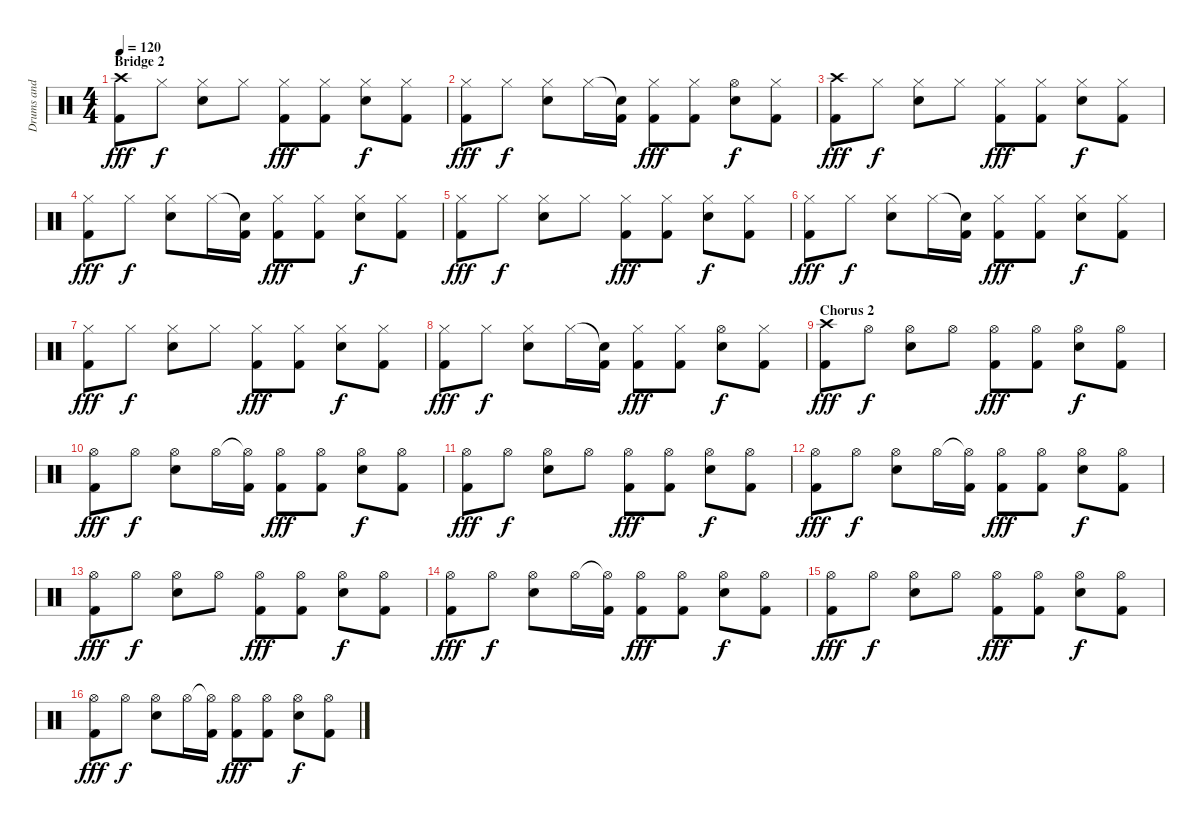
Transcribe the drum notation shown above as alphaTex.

\track ("Drums and Percussion" "Drums and ") {instrument percussion}
\staff {score}
\articulation defaults
\ts (4 4)
\section ("" "Bridge 2")
\tempo 120
\clef neutral
\ks c
("Crash high (hit)" "Kick (hit) 2").8{dy fff} "Hi-Hat (closed)".8{dy f} ("Hi-Hat (closed)" "Snare (hit) 2").8 "Hi-Hat (closed)".8 ("Hi-Hat (closed)" "Kick (hit) 2").8{dy fff} ("Hi-Hat (closed)" "Kick (hit) 2").8 ("Hi-Hat (closed)" "Snare (hit) 2").8{dy f} ("Hi-Hat (closed)" "Kick (hit) 2").8 |
("Hi-Hat (closed)" "Kick (hit) 2").8{dy fff} "Hi-Hat (closed)".8{dy f} ("Hi-Hat (closed)" "Snare (hit) 2").8 "Hi-Hat (closed)".16 ("Snare (hit)"{t} "Kick (hit) 2").16 ("Hi-Hat (closed)" "Kick (hit) 2").8{dy fff} ("Hi-Hat (closed)" "Kick (hit) 2").8 ("Hi-Hat (open)" "Snare (hit) 2").8{dy f} ("Hi-Hat (closed)" "Kick (hit) 2").8 |
("Crash high (hit)" "Kick (hit) 2").8{dy fff} "Hi-Hat (closed)".8{dy f} ("Hi-Hat (closed)" "Snare (hit) 2").8 "Hi-Hat (closed)".8 ("Hi-Hat (closed)" "Kick (hit) 2").8{dy fff} ("Hi-Hat (closed)" "Kick (hit) 2").8 ("Hi-Hat (closed)" "Snare (hit) 2").8{dy f} ("Hi-Hat (closed)" "Kick (hit) 2").8 |
("Hi-Hat (closed)" "Kick (hit) 2").8{dy fff} "Hi-Hat (closed)".8{dy f} ("Hi-Hat (closed)" "Snare (hit) 2").8 "Hi-Hat (closed)".16 ("Snare (hit)"{t} "Kick (hit) 2").16 ("Hi-Hat (closed)" "Kick (hit) 2").8{dy fff} ("Hi-Hat (closed)" "Kick (hit) 2").8 ("Hi-Hat (closed)" "Snare (hit) 2").8{dy f} ("Hi-Hat (closed)" "Kick (hit) 2").8 |
("Hi-Hat (closed)" "Kick (hit) 2").8{dy fff} "Hi-Hat (closed)".8{dy f} ("Hi-Hat (closed)" "Snare (hit) 2").8 "Hi-Hat (closed)".8 ("Hi-Hat (closed)" "Kick (hit) 2").8{dy fff} ("Hi-Hat (closed)" "Kick (hit) 2").8 ("Hi-Hat (closed)" "Snare (hit) 2").8{dy f} ("Hi-Hat (closed)" "Kick (hit) 2").8 |
("Hi-Hat (closed)" "Kick (hit) 2").8{dy fff} "Hi-Hat (closed)".8{dy f} ("Hi-Hat (closed)" "Snare (hit) 2").8 "Hi-Hat (closed)".16 ("Snare (hit)"{t} "Kick (hit) 2").16 ("Hi-Hat (closed)" "Kick (hit) 2").8{dy fff} ("Hi-Hat (closed)" "Kick (hit) 2").8 ("Hi-Hat (closed)" "Snare (hit) 2").8{dy f} ("Hi-Hat (closed)" "Kick (hit) 2").8 |
("Hi-Hat (closed)" "Kick (hit) 2").8{dy fff} "Hi-Hat (closed)".8{dy f} ("Hi-Hat (closed)" "Snare (hit) 2").8 "Hi-Hat (closed)".8 ("Hi-Hat (closed)" "Kick (hit) 2").8{dy fff} ("Hi-Hat (closed)" "Kick (hit) 2").8 ("Hi-Hat (closed)" "Snare (hit) 2").8{dy f} ("Hi-Hat (closed)" "Kick (hit) 2").8 |
("Hi-Hat (closed)" "Kick (hit) 2").8{dy fff} "Hi-Hat (closed)".8{dy f} ("Hi-Hat (closed)" "Snare (hit) 2").8 "Hi-Hat (closed)".16 ("Snare (hit)"{t} "Kick (hit) 2").16 ("Hi-Hat (closed)" "Kick (hit) 2").8{dy fff} ("Hi-Hat (closed)" "Kick (hit) 2").8 ("Hi-Hat (open)" "Snare (hit) 2").8{dy f} ("Hi-Hat (closed)" "Kick (hit) 2").8 |
\section ("" "Chorus 2")
("Crash high (hit)" "Kick (hit) 2").8{dy fff} "Hi-Hat (open)".8{dy f} ("Hi-Hat (open)" "Snare (hit) 2").8 "Hi-Hat (open)".8 ("Hi-Hat (open)" "Kick (hit) 2").8{dy fff} ("Hi-Hat (open)" "Kick (hit) 2").8 ("Hi-Hat (open)" "Snare (hit) 2").8{dy f} ("Hi-Hat (open)" "Kick (hit) 2").8 |
("Hi-Hat (open)" "Kick (hit) 2").8{dy fff} "Hi-Hat (open)".8{dy f} ("Hi-Hat (open)" "Snare (hit) 2").8 "Hi-Hat (open)".16 ("Hi-Hat (open)"{t} "Kick (hit) 2").16 ("Hi-Hat (open)" "Kick (hit) 2").8{dy fff} ("Hi-Hat (open)" "Kick (hit) 2").8 ("Hi-Hat (open)" "Snare (hit) 2").8{dy f} ("Hi-Hat (open)" "Kick (hit) 2").8 |
("Hi-Hat (open)" "Kick (hit) 2").8{dy fff} "Hi-Hat (open)".8{dy f} ("Hi-Hat (open)" "Snare (hit) 2").8 "Hi-Hat (open)".8 ("Hi-Hat (open)" "Kick (hit) 2").8{dy fff} ("Hi-Hat (open)" "Kick (hit) 2").8 ("Hi-Hat (open)" "Snare (hit) 2").8{dy f} ("Hi-Hat (open)" "Kick (hit) 2").8 |
("Hi-Hat (open)" "Kick (hit) 2").8{dy fff} "Hi-Hat (open)".8{dy f} ("Hi-Hat (open)" "Snare (hit) 2").8 "Hi-Hat (open)".16 ("Hi-Hat (open)"{t} "Kick (hit) 2").16 ("Hi-Hat (open)" "Kick (hit) 2").8{dy fff} ("Hi-Hat (open)" "Kick (hit) 2").8 ("Hi-Hat (open)" "Snare (hit) 2").8{dy f} ("Hi-Hat (open)" "Kick (hit) 2").8 |
("Hi-Hat (open)" "Kick (hit) 2").8{dy fff} "Hi-Hat (open)".8{dy f} ("Hi-Hat (open)" "Snare (hit) 2").8 "Hi-Hat (open)".8 ("Hi-Hat (open)" "Kick (hit) 2").8{dy fff} ("Hi-Hat (open)" "Kick (hit) 2").8 ("Hi-Hat (open)" "Snare (hit) 2").8{dy f} ("Hi-Hat (open)" "Kick (hit) 2").8 |
("Hi-Hat (open)" "Kick (hit) 2").8{dy fff} "Hi-Hat (open)".8{dy f} ("Hi-Hat (open)" "Snare (hit) 2").8 "Hi-Hat (open)".16 ("Hi-Hat (open)"{t} "Kick (hit) 2").16 ("Hi-Hat (open)" "Kick (hit) 2").8{dy fff} ("Hi-Hat (open)" "Kick (hit) 2").8 ("Hi-Hat (open)" "Snare (hit) 2").8{dy f} ("Hi-Hat (open)" "Kick (hit) 2").8 |
("Hi-Hat (open)" "Kick (hit) 2").8{dy fff} "Hi-Hat (open)".8{dy f} ("Hi-Hat (open)" "Snare (hit) 2").8 "Hi-Hat (open)".8 ("Hi-Hat (open)" "Kick (hit) 2").8{dy fff} ("Hi-Hat (open)" "Kick (hit) 2").8 ("Hi-Hat (open)" "Snare (hit) 2").8{dy f} ("Hi-Hat (open)" "Kick (hit) 2").8 |
("Hi-Hat (open)" "Kick (hit) 2").8{dy fff} "Hi-Hat (open)".8{dy f} ("Hi-Hat (open)" "Snare (hit) 2").8 "Hi-Hat (open)".16 ("Hi-Hat (open)"{t} "Kick (hit) 2").16 ("Hi-Hat (open)" "Kick (hit) 2").8{dy fff} ("Hi-Hat (open)" "Kick (hit) 2").8 ("Hi-Hat (open)" "Snare (hit) 2").8{dy f} ("Hi-Hat (open)" "Kick (hit) 2").8
